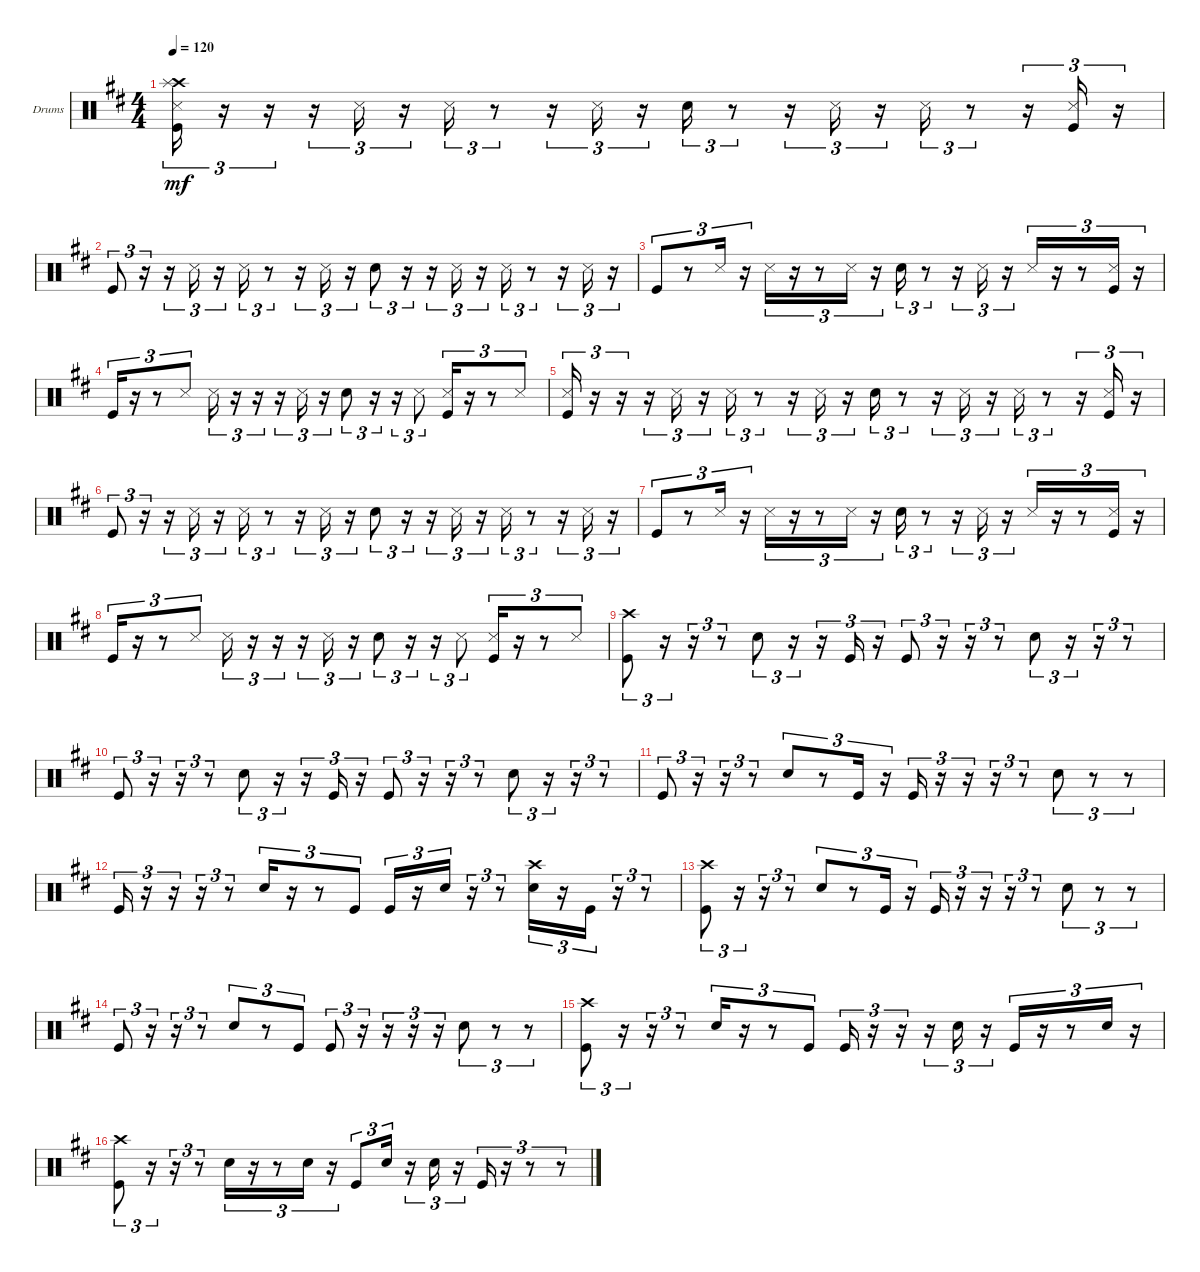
\defaultSystemsLayout 4
\bracketExtendMode groupsimilarinstruments
\firstSystemTrackNameOrientation horizontal
\otherSystemsTrackNameOrientation horizontal
\track ("Drumkit" "Drums") {multiBarRest instrument percussion}
\staff {score}
\articulation defaults
\ts (4 4)
\tempo 120
\clef neutral
\ks d
("Crash high (hit)" "Splash (hit)" "Kick (hit)" "Snare (side stick) 3").16{tu (3 2) dy mf} r.16{tu (3 2)} r.16{tu (3 2)} r.16{tu (3 2)} "Snare (side stick) 3".16{tu (3 2)} r.16{tu (3 2)} "Snare (side stick) 3".16{tu (3 2)} r.8{tu (3 2)} r.16{tu (3 2)} "Snare (side stick) 3".16{tu (3 2)} r.16{tu (3 2)} "Snare (hit) 2".16{tu (3 2)} r.8{tu (3 2)} r.16{tu (3 2)} "Snare (side stick) 3".16{tu (3 2)} r.16{tu (3 2)} "Snare (side stick) 3".16{tu (3 2)} r.8{tu (3 2)} r.16{tu (3 2)} ("Kick (hit)" "Snare (side stick) 3").16{tu (3 2)} r.16{tu (3 2)} |
"Kick (hit)".8{tu (3 2)} r.16{tu (3 2)} r.16{tu (3 2)} "Snare (side stick) 3".16{tu (3 2)} r.16{tu (3 2)} "Snare (side stick) 3".16{tu (3 2)} r.8{tu (3 2)} r.16{tu (3 2)} "Snare (side stick) 3".16{tu (3 2)} r.16{tu (3 2)} "Snare (hit) 2".8{tu (3 2)} r.16{tu (3 2)} r.16{tu (3 2)} "Snare (side stick) 3".16{tu (3 2)} r.16{tu (3 2)} "Snare (side stick) 3".16{tu (3 2)} r.8{tu (3 2)} r.16{tu (3 2)} "Snare (side stick) 3".16{tu (3 2)} r.16{tu (3 2)} |
"Kick (hit)".8{tu (3 2)} r.8{tu (3 2)} "Snare (side stick) 3".16{tu (3 2)} r.16{tu (3 2)} "Snare (side stick) 3".16{tu (3 2)} r.16{tu (3 2)} r.8{tu (3 2)} "Snare (side stick) 3".16{tu (3 2)} r.16{tu (3 2)} "Snare (hit) 2".16{tu (3 2)} r.8{tu (3 2)} r.16{tu (3 2)} "Snare (side stick) 3".16{tu (3 2)} r.16{tu (3 2)} "Snare (side stick) 3".16{tu (3 2)} r.16{tu (3 2)} r.8{tu (3 2)} ("Kick (hit)" "Snare (side stick) 3").16{tu (3 2)} r.16{tu (3 2)} |
"Kick (hit)".16{tu (3 2)} r.16{tu (3 2)} r.8{tu (3 2)} "Snare (side stick) 3".8{tu (3 2)} "Snare (side stick) 3".16{tu (3 2)} r.16{tu (3 2)} r.16{tu (3 2)} r.16{tu (3 2)} "Snare (side stick) 3".16{tu (3 2)} r.16{tu (3 2)} "Snare (hit) 2".8{tu (3 2)} r.16{tu (3 2)} r.16{tu (3 2)} "Snare (side stick) 3".8{tu (3 2)} ("Kick (hit)" "Snare (side stick) 3").16{tu (3 2)} r.16{tu (3 2)} r.8{tu (3 2)} "Snare (side stick) 3".8{tu (3 2)} |
("Kick (hit)" "Snare (side stick) 3").16{tu (3 2)} r.16{tu (3 2)} r.16{tu (3 2)} r.16{tu (3 2)} "Snare (side stick) 3".16{tu (3 2)} r.16{tu (3 2)} "Snare (side stick) 3".16{tu (3 2)} r.8{tu (3 2)} r.16{tu (3 2)} "Snare (side stick) 3".16{tu (3 2)} r.16{tu (3 2)} "Snare (hit) 2".16{tu (3 2)} r.8{tu (3 2)} r.16{tu (3 2)} "Snare (side stick) 3".16{tu (3 2)} r.16{tu (3 2)} "Snare (side stick) 3".16{tu (3 2)} r.8{tu (3 2)} r.16{tu (3 2)} ("Kick (hit)" "Snare (side stick) 3").16{tu (3 2)} r.16{tu (3 2)} |
"Kick (hit)".8{tu (3 2)} r.16{tu (3 2)} r.16{tu (3 2)} "Snare (side stick) 3".16{tu (3 2)} r.16{tu (3 2)} "Snare (side stick) 3".16{tu (3 2)} r.8{tu (3 2)} r.16{tu (3 2)} "Snare (side stick) 3".16{tu (3 2)} r.16{tu (3 2)} "Snare (hit) 2".8{tu (3 2)} r.16{tu (3 2)} r.16{tu (3 2)} "Snare (side stick) 3".16{tu (3 2)} r.16{tu (3 2)} "Snare (side stick) 3".16{tu (3 2)} r.8{tu (3 2)} r.16{tu (3 2)} "Snare (side stick) 3".16{tu (3 2)} r.16{tu (3 2)} |
"Kick (hit)".8{tu (3 2)} r.8{tu (3 2)} "Snare (side stick) 3".16{tu (3 2)} r.16{tu (3 2)} "Snare (side stick) 3".16{tu (3 2)} r.16{tu (3 2)} r.8{tu (3 2)} "Snare (side stick) 3".16{tu (3 2)} r.16{tu (3 2)} "Snare (hit) 2".16{tu (3 2)} r.8{tu (3 2)} r.16{tu (3 2)} "Snare (side stick) 3".16{tu (3 2)} r.16{tu (3 2)} "Snare (side stick) 3".16{tu (3 2)} r.16{tu (3 2)} r.8{tu (3 2)} ("Kick (hit)" "Snare (side stick) 3").16{tu (3 2)} r.16{tu (3 2)} |
"Kick (hit)".16{tu (3 2)} r.16{tu (3 2)} r.8{tu (3 2)} "Snare (side stick) 3".8{tu (3 2)} "Snare (side stick) 3".16{tu (3 2)} r.16{tu (3 2)} r.16{tu (3 2)} r.16{tu (3 2)} "Snare (side stick) 3".16{tu (3 2)} r.16{tu (3 2)} "Snare (hit) 2".8{tu (3 2)} r.16{tu (3 2)} r.16{tu (3 2)} "Snare (side stick) 3".8{tu (3 2)} ("Kick (hit)" "Snare (side stick) 3").16{tu (3 2)} r.16{tu (3 2)} r.8{tu (3 2)} "Snare (side stick) 3".8{tu (3 2)} |
("Crash high (hit)" "Kick (hit)").8{tu (3 2)} r.16{tu (3 2)} r.16{tu (3 2)} r.8{tu (3 2)} "Snare (hit) 2".8{tu (3 2)} r.16{tu (3 2)} r.16{tu (3 2)} "Kick (hit)".16{tu (3 2)} r.16{tu (3 2)} "Kick (hit)".8{tu (3 2)} r.16{tu (3 2)} r.16{tu (3 2)} r.8{tu (3 2)} "Snare (hit) 2".8{tu (3 2)} r.16{tu (3 2)} r.16{tu (3 2)} r.8{tu (3 2)} |
"Kick (hit)".8{tu (3 2)} r.16{tu (3 2)} r.16{tu (3 2)} r.8{tu (3 2)} "Snare (hit) 2".8{tu (3 2)} r.16{tu (3 2)} r.16{tu (3 2)} "Kick (hit)".16{tu (3 2)} r.16{tu (3 2)} "Kick (hit)".8{tu (3 2)} r.16{tu (3 2)} r.16{tu (3 2)} r.8{tu (3 2)} "Snare (hit) 2".8{tu (3 2)} r.16{tu (3 2)} r.16{tu (3 2)} r.8{tu (3 2)} |
"Kick (hit)".8{tu (3 2)} r.16{tu (3 2)} r.16{tu (3 2)} r.8{tu (3 2)} "Snare (hit) 2".8{tu (3 2)} r.8{tu (3 2)} "Kick (hit)".16{tu (3 2)} r.16{tu (3 2)} "Kick (hit)".16{tu (3 2)} r.16{tu (3 2)} r.16{tu (3 2)} r.16{tu (3 2)} r.8{tu (3 2)} "Snare (hit) 2".8{tu (3 2)} r.8{tu (3 2)} r.8{tu (3 2)} |
"Kick (hit)".16{tu (3 2)} r.16{tu (3 2)} r.16{tu (3 2)} r.16{tu (3 2)} r.8{tu (3 2)} "Snare (hit) 2".16{tu (3 2)} r.16{tu (3 2)} r.8{tu (3 2)} "Kick (hit)".8{tu (3 2)} "Kick (hit)".16{tu (3 2)} r.16{tu (3 2)} "Snare (hit) 2".16{tu (3 2)} r.16{tu (3 2)} r.8{tu (3 2)} ("Crash high (hit)" "Snare (hit) 2").16{tu (3 2)} r.16{tu (3 2)} "Kick (hit)".16{tu (3 2)} r.16{tu (3 2)} r.8{tu (3 2)} |
("Crash high (hit)" "Kick (hit)").8{tu (3 2)} r.16{tu (3 2)} r.16{tu (3 2)} r.8{tu (3 2)} "Snare (hit) 2".8{tu (3 2)} r.8{tu (3 2)} "Kick (hit)".16{tu (3 2)} r.16{tu (3 2)} "Kick (hit)".16{tu (3 2)} r.16{tu (3 2)} r.16{tu (3 2)} r.16{tu (3 2)} r.8{tu (3 2)} "Snare (hit) 2".8{tu (3 2)} r.8{tu (3 2)} r.8{tu (3 2)} |
"Kick (hit)".8{tu (3 2)} r.16{tu (3 2)} r.16{tu (3 2)} r.8{tu (3 2)} "Snare (hit) 2".8{tu (3 2)} r.8{tu (3 2)} "Kick (hit)".8{tu (3 2)} "Kick (hit)".8{tu (3 2)} r.16{tu (3 2)} r.16{tu (3 2)} r.16{tu (3 2)} r.16{tu (3 2)} "Snare (hit) 2".8{tu (3 2)} r.8{tu (3 2)} r.8{tu (3 2)} |
("Crash high (hit)" "Kick (hit)").8{tu (3 2)} r.16{tu (3 2)} r.16{tu (3 2)} r.8{tu (3 2)} "Snare (hit) 2".16{tu (3 2)} r.16{tu (3 2)} r.8{tu (3 2)} "Kick (hit)".8{tu (3 2)} "Kick (hit)".16{tu (3 2)} r.16{tu (3 2)} r.16{tu (3 2)} r.16{tu (3 2)} "Snare (hit) 2".16{tu (3 2)} r.16{tu (3 2)} "Kick (hit)".16{tu (3 2)} r.16{tu (3 2)} r.8{tu (3 2)} "Snare (hit) 2".16{tu (3 2)} r.16{tu (3 2)} |
("Crash high (hit)" "Kick (hit)").8{tu (3 2)} r.16{tu (3 2)} r.16{tu (3 2)} r.8{tu (3 2)} "Snare (hit) 2".16{tu (3 2)} r.16{tu (3 2)} r.8{tu (3 2)} "Snare (hit) 2".16{tu (3 2)} r.16{tu (3 2)} "Kick (hit)".8{tu (3 2)} "Snare (hit) 2".16{tu (3 2)} r.16{tu (3 2)} "Snare (hit) 2".16{tu (3 2)} r.16{tu (3 2)} "Kick (hit)".16{tu (3 2)} r.16{tu (3 2)} r.8{tu (3 2)} r.8{tu (3 2)}
